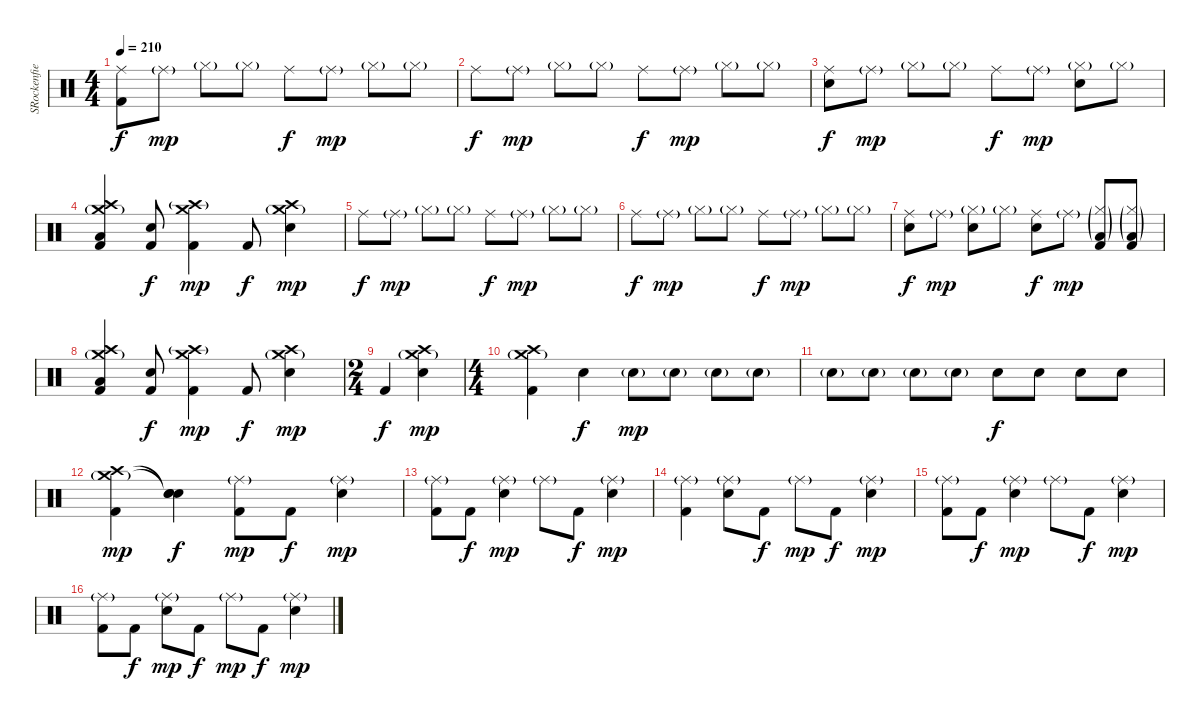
\track ("SRockenfield" "SRockenfie") {instrument percussion}
\staff {score}
\articulation defaults
\ts (4 4)
\tempo 210
\clef neutral
\ks c
("Ride (middle)" "Kick (hit) 2").8{dy f} "Ride (middle)"{g}.8{dy mp} "Hi-Hat (closed)"{g}.8 "Hi-Hat (closed)"{g}.8 "Ride (middle)".8{dy f} "Ride (middle)"{g}.8{dy mp} "Hi-Hat (closed)"{g}.8 "Hi-Hat (closed)"{g}.8 |
"Ride (middle)".8{dy f} "Ride (middle)"{g}.8{dy mp} "Hi-Hat (closed)"{g}.8 "Hi-Hat (closed)"{g}.8 "Ride (middle)".8{dy f} "Ride (middle)"{g}.8{dy mp} "Hi-Hat (closed)"{g}.8 "Hi-Hat (closed)"{g}.8 |
("Ride (middle)" "Electric Snare (hit)").8{dy f} "Ride (middle)"{g}.8{dy mp} "Hi-Hat (closed)"{g}.8 "Hi-Hat (closed)"{g}.8 "Ride (middle)".8{dy f} "Ride (middle)"{g}.8{dy mp} ("Hi-Hat (closed)"{g} "Electric Snare (hit)").8 "Hi-Hat (closed)"{g}.8 |
("Crash high (hit)" "Crash medium (hit)"{g} "Low Floor Tom (hit)" "Kick (hit) 2").4 ("Electric Snare (hit)" "Kick (hit) 2").8{dy f} ("Crash medium (hit)" "Crash high (hit)"{g} "Kick (hit) 2").4{dy mp} "Kick (hit) 2".8{dy f} ("Crash high (hit)" "Crash medium (hit)"{g} "Electric Snare (hit)").4{dy mp} |
"Ride (middle)".8{dy f} "Ride (middle)"{g}.8{dy mp} "Hi-Hat (closed)"{g}.8 "Hi-Hat (closed)"{g}.8 "Ride (middle)".8{dy f} "Ride (middle)"{g}.8{dy mp} "Hi-Hat (closed)"{g}.8 "Hi-Hat (closed)"{g}.8 |
"Ride (middle)".8{dy f} "Ride (middle)"{g}.8{dy mp} "Hi-Hat (closed)"{g}.8 "Hi-Hat (closed)"{g}.8 "Ride (middle)".8{dy f} "Ride (middle)"{g}.8{dy mp} "Hi-Hat (closed)"{g}.8 "Hi-Hat (closed)"{g}.8 |
("Ride (middle)" "Electric Snare (hit)").8{dy f} "Ride (middle)"{g}.8{dy mp} ("Hi-Hat (closed)"{g} "Electric Snare (hit)").8 "Hi-Hat (closed)"{g}.8 ("Ride (middle)" "Electric Snare (hit)").8{dy f} "Ride (middle)"{g}.8{dy mp} ("Hi-Hat (closed)"{g} "Low Floor Tom (hit)"{g} "Kick (hit) 2").8 ("Hi-Hat (closed)"{g} "Low Floor Tom (hit)"{g} "Kick (hit) 2").8 |
("Crash high (hit)" "Crash medium (hit)"{g} "Low Floor Tom (hit)" "Kick (hit) 2").4 ("Electric Snare (hit)" "Kick (hit) 2").8{dy f} ("Crash medium (hit)" "Crash high (hit)"{g} "Kick (hit) 2").4{dy mp} "Kick (hit) 2".8{dy f} ("Crash high (hit)" "Crash medium (hit)"{g} "Electric Snare (hit)").4{dy mp} |
\ts (2 4)
"Kick (hit) 2".4{dy f} ("Crash high (hit)" "Crash medium (hit)"{g} "Electric Snare (hit)").4{dy mp} |
\ts (4 4)
("Crash high (hit)" "Crash medium (hit)"{g} "Kick (hit) 2").4 "Electric Snare (hit)".4{dy f} "Electric Snare (hit)"{g}.8{dy mp} "Electric Snare (hit)"{g}.8 "Electric Snare (hit)"{g}.8 "Electric Snare (hit)"{g}.8 |
"Electric Snare (hit)"{g}.8 "Electric Snare (hit)"{g}.8 "Electric Snare (hit)"{g}.8 "Electric Snare (hit)"{g}.8 "Electric Snare (hit)".8{dy f} "Electric Snare (hit)".8 "Electric Snare (hit)".8 "Electric Snare (hit)".8 |
("Crash medium (hit)"{g} "Crash high (hit)" "Kick (hit) 2").4{dy mp} ("Snare (hit)"{t} "Snare (hit)"{t} "Electric Snare (hit)").4{dy f} ("Ride (middle)"{g} "Kick (hit) 2").8{dy mp} "Kick (hit) 2".8{dy f} ("Ride (middle)"{g} "Electric Snare (hit)").4{dy mp} |
("Ride (middle)"{g} "Kick (hit) 2").8 "Kick (hit) 2".8{dy f} ("Ride (middle)"{g} "Electric Snare (hit)").4{dy mp} "Ride (middle)"{g}.8 "Kick (hit) 2".8{dy f} ("Ride (middle)"{g} "Electric Snare (hit)").4{dy mp} |
("Ride (middle)"{g} "Kick (hit) 2").4 ("Ride (middle)"{g} "Electric Snare (hit)").8 "Kick (hit) 2".8{dy f} "Ride (middle)"{g}.8{dy mp} "Kick (hit) 2".8{dy f} ("Ride (middle)"{g} "Electric Snare (hit)").4{dy mp} |
("Ride (middle)"{g} "Kick (hit) 2").8 "Kick (hit) 2".8{dy f} ("Ride (middle)"{g} "Electric Snare (hit)").4{dy mp} "Ride (middle)"{g}.8 "Kick (hit) 2".8{dy f} ("Ride (middle)"{g} "Electric Snare (hit)").4{dy mp} |
("Ride (middle)"{g} "Kick (hit) 2").8 "Kick (hit) 2".8{dy f} ("Ride (middle)"{g} "Electric Snare (hit)").8{dy mp} "Kick (hit) 2".8{dy f} "Ride (middle)"{g}.8{dy mp} "Kick (hit) 2".8{dy f} ("Ride (middle)"{g} "Electric Snare (hit)").4{dy mp}
